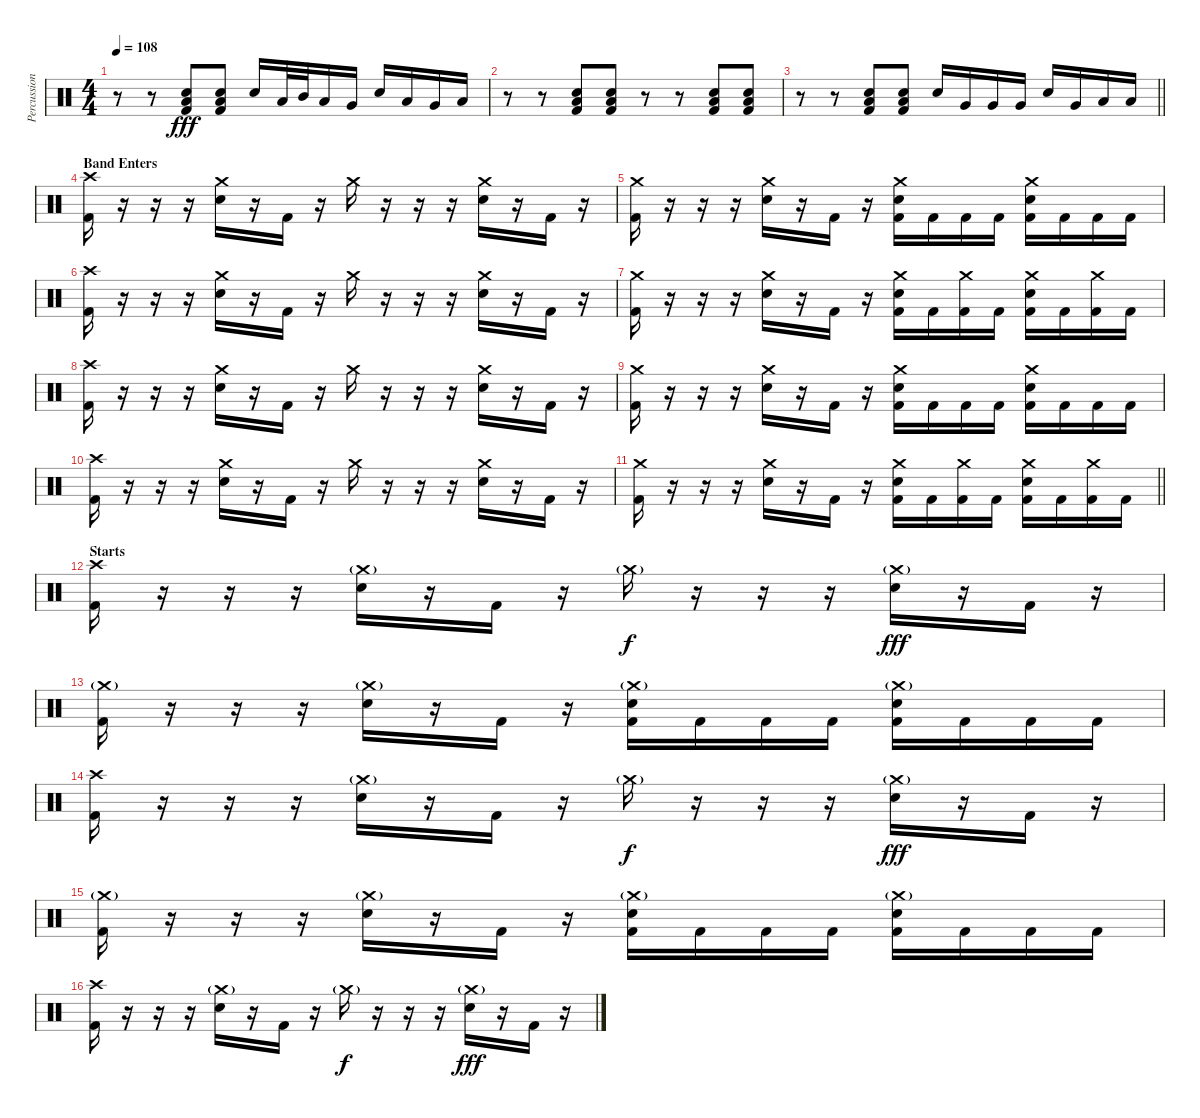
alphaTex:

\track ("Percussion" "Percussion") {instrument percussion}
\staff {score}
\articulation defaults
\ts (4 4)
\tempo 108
\clef neutral
\ks c
r.8{dy fff} r.8 ("Low Floor Tom (hit)" "Electric Snare (hit)" "Kick (hit) 2").8 ("Low Floor Tom (hit)" "Electric Snare (hit)" "Kick (hit) 2").8 "Snare (hit) 2".16 "Low Tom (hit)".32 "Mid Tom (hit)".32 "Low Tom (hit)".16 "Very Low Tom (hit)".16 "Snare (hit) 2".16 "Low Tom (hit)".16 "Very Low Tom (hit)".16 "Low Floor Tom (hit)".16 |
r.8 r.8 ("Low Floor Tom (hit)" "Electric Snare (hit)" "Kick (hit) 2").8 ("Low Floor Tom (hit)" "Electric Snare (hit)" "Kick (hit) 2").8 r.8 r.8 ("Low Floor Tom (hit)" "Electric Snare (hit)" "Kick (hit) 2").8 ("Low Floor Tom (hit)" "Electric Snare (hit)" "Kick (hit) 2").8 |
\barLineRight lightlight
r.8 r.8 ("Low Floor Tom (hit)" "Electric Snare (hit)" "Kick (hit) 2").8 ("Low Floor Tom (hit)" "Electric Snare (hit)" "Kick (hit) 2").8 "Snare (hit) 2".16 "Very Low Tom (hit)".16 "Very Low Tom (hit)".16 "Very Low Tom (hit)".16 "Snare (hit) 2".16 "Very Low Tom (hit)".16 "Low Floor Tom (hit)".16 "Low Floor Tom (hit)".16 |
\section ("" "Band Enters")
("Crash high (hit)" "Kick (hit) 2").16 r.16 r.16 r.16 ("Crash medium (hit)" "Electric Snare (hit)").16 r.16 "Kick (hit) 2".16 r.16 "Crash medium (hit)".16 r.16 r.16 r.16 ("Crash medium (hit)" "Electric Snare (hit)").16 r.16 "Kick (hit) 2".16 r.16 |
("Crash medium (hit)" "Kick (hit) 2").16 r.16 r.16 r.16 ("Crash medium (hit)" "Electric Snare (hit)").16 r.16 "Kick (hit) 2".16 r.16 ("Crash medium (hit)" "Electric Snare (hit)" "Kick (hit) 2").16 "Kick (hit) 2".16 "Kick (hit) 2".16 "Kick (hit) 2".16 ("Crash medium (hit)" "Electric Snare (hit)" "Kick (hit) 2").16 "Kick (hit) 2".16 "Kick (hit) 2".16 "Kick (hit) 2".16 |
("Crash high (hit)" "Kick (hit) 2").16 r.16 r.16 r.16 ("Crash medium (hit)" "Electric Snare (hit)").16 r.16 "Kick (hit) 2".16 r.16 "Crash medium (hit)".16 r.16 r.16 r.16 ("Crash medium (hit)" "Electric Snare (hit)").16 r.16 "Kick (hit) 2".16 r.16 |
("Crash medium (hit)" "Kick (hit) 2").16 r.16 r.16 r.16 ("Crash medium (hit)" "Electric Snare (hit)").16 r.16 "Kick (hit) 2".16 r.16 ("Crash medium (hit)" "Electric Snare (hit)" "Kick (hit) 2").16 "Kick (hit) 2".16 ("Crash medium (hit)" "Kick (hit) 2").16 "Kick (hit) 2".16 ("Crash medium (hit)" "Electric Snare (hit)" "Kick (hit) 2").16 "Kick (hit) 2".16 ("Crash medium (hit)" "Kick (hit) 2").16 "Kick (hit) 2".16 |
("Crash high (hit)" "Kick (hit) 2").16 r.16 r.16 r.16 ("Crash medium (hit)" "Electric Snare (hit)").16 r.16 "Kick (hit) 2".16 r.16 "Crash medium (hit)".16 r.16 r.16 r.16 ("Crash medium (hit)" "Electric Snare (hit)").16 r.16 "Kick (hit) 2".16 r.16 |
("Crash medium (hit)" "Kick (hit) 2").16 r.16 r.16 r.16 ("Crash medium (hit)" "Electric Snare (hit)").16 r.16 "Kick (hit) 2".16 r.16 ("Crash medium (hit)" "Electric Snare (hit)" "Kick (hit) 2").16 "Kick (hit) 2".16 "Kick (hit) 2".16 "Kick (hit) 2".16 ("Crash medium (hit)" "Electric Snare (hit)" "Kick (hit) 2").16 "Kick (hit) 2".16 "Kick (hit) 2".16 "Kick (hit) 2".16 |
("Crash high (hit)" "Kick (hit) 2").16 r.16 r.16 r.16 ("Crash medium (hit)" "Electric Snare (hit)").16 r.16 "Kick (hit) 2".16 r.16 "Crash medium (hit)".16 r.16 r.16 r.16 ("Crash medium (hit)" "Electric Snare (hit)").16 r.16 "Kick (hit) 2".16 r.16 |
\barLineRight lightlight
("Crash medium (hit)" "Kick (hit) 2").16 r.16 r.16 r.16 ("Crash medium (hit)" "Electric Snare (hit)").16 r.16 "Kick (hit) 2".16 r.16 ("Crash medium (hit)" "Electric Snare (hit)" "Kick (hit) 2").16 "Kick (hit) 2".16 ("Crash medium (hit)" "Kick (hit) 2").16 "Kick (hit) 2".16 ("Crash medium (hit)" "Electric Snare (hit)" "Kick (hit) 2").16 "Kick (hit) 2".16 ("Crash medium (hit)" "Kick (hit) 2").16 "Kick (hit) 2".16 |
\section ("" "Starts")
("Crash high (hit)" "Kick (hit) 2").16 r.16 r.16 r.16 ("Crash medium (hit)"{g} "Electric Snare (hit)").16 r.16 "Kick (hit) 2".16 r.16 "Crash medium (hit)"{g}.16{dy f} r.16 r.16 r.16 ("Crash medium (hit)"{g} "Electric Snare (hit)").16{dy fff} r.16 "Kick (hit) 2".16 r.16 |
("Crash medium (hit)"{g} "Kick (hit) 2").16 r.16 r.16 r.16 ("Crash medium (hit)"{g} "Electric Snare (hit)").16 r.16 "Kick (hit) 2".16 r.16 ("Crash medium (hit)"{g} "Electric Snare (hit)" "Kick (hit) 2").16 "Kick (hit) 2".16 "Kick (hit) 2".16 "Kick (hit) 2".16 ("Crash medium (hit)"{g} "Electric Snare (hit)" "Kick (hit) 2").16 "Kick (hit) 2".16 "Kick (hit) 2".16 "Kick (hit) 2".16 |
("Crash high (hit)" "Kick (hit) 2").16 r.16 r.16 r.16 ("Crash medium (hit)"{g} "Electric Snare (hit)").16 r.16 "Kick (hit) 2".16 r.16 "Crash medium (hit)"{g}.16{dy f} r.16 r.16 r.16 ("Crash medium (hit)"{g} "Electric Snare (hit)").16{dy fff} r.16 "Kick (hit) 2".16 r.16 |
("Crash medium (hit)"{g} "Kick (hit) 2").16 r.16 r.16 r.16 ("Crash medium (hit)"{g} "Electric Snare (hit)").16 r.16 "Kick (hit) 2".16 r.16 ("Crash medium (hit)"{g} "Electric Snare (hit)" "Kick (hit) 2").16 "Kick (hit) 2".16 "Kick (hit) 2".16 "Kick (hit) 2".16 ("Crash medium (hit)"{g} "Electric Snare (hit)" "Kick (hit) 2").16 "Kick (hit) 2".16 "Kick (hit) 2".16 "Kick (hit) 2".16 |
("Crash high (hit)" "Kick (hit) 2").16 r.16 r.16 r.16 ("Crash medium (hit)"{g} "Electric Snare (hit)").16 r.16 "Kick (hit) 2".16 r.16 "Crash medium (hit)"{g}.16{dy f} r.16 r.16 r.16 ("Crash medium (hit)"{g} "Electric Snare (hit)").16{dy fff} r.16 "Kick (hit) 2".16 r.16
